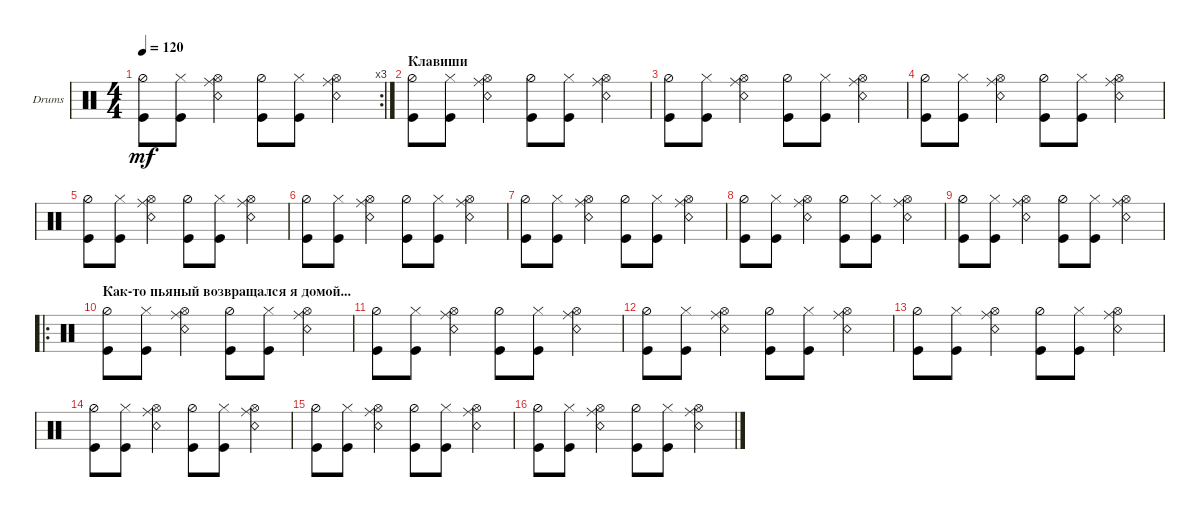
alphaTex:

\defaultSystemsLayout 4
\bracketExtendMode groupsimilarinstruments
\firstSystemTrackNameOrientation horizontal
\otherSystemsTrackNameOrientation horizontal
\track ("Drumkit" "Drums") {instrument percussion}
\staff {score}
\articulation defaults
\rc 3
\ts (4 4)
\tempo 120
\clef neutral
\ks c
("Kick (hit)" "Hi-Hat (half)").8{dy mf} ("Hi-Hat (closed)" "Kick (hit)").8 ("Hi-Hat (open)" "Ride (middle)" "Snare (rim shot)").4 ("Kick (hit)" "Hi-Hat (half)").8 ("Hi-Hat (closed)" "Kick (hit)").8 ("Hi-Hat (open)" "Ride (middle)" "Snare (rim shot)").4 |
\section ("" "Клавиши")
("Kick (hit)" "Hi-Hat (half)").8 ("Hi-Hat (closed)" "Kick (hit)").8 ("Hi-Hat (open)" "Ride (middle)" "Snare (rim shot)").4 ("Kick (hit)" "Hi-Hat (half)").8 ("Hi-Hat (closed)" "Kick (hit)").8 ("Hi-Hat (open)" "Ride (middle)" "Snare (rim shot)").4 |
("Kick (hit)" "Hi-Hat (half)").8 ("Hi-Hat (closed)" "Kick (hit)").8 ("Hi-Hat (open)" "Ride (middle)" "Snare (rim shot)").4 ("Kick (hit)" "Hi-Hat (half)").8 ("Hi-Hat (closed)" "Kick (hit)").8 ("Hi-Hat (open)" "Ride (middle)" "Snare (rim shot)").4 |
("Kick (hit)" "Hi-Hat (half)").8 ("Hi-Hat (closed)" "Kick (hit)").8 ("Hi-Hat (open)" "Ride (middle)" "Snare (rim shot)").4 ("Kick (hit)" "Hi-Hat (half)").8 ("Hi-Hat (closed)" "Kick (hit)").8 ("Hi-Hat (open)" "Ride (middle)" "Snare (rim shot)").4 |
("Kick (hit)" "Hi-Hat (half)").8 ("Hi-Hat (closed)" "Kick (hit)").8 ("Hi-Hat (open)" "Ride (middle)" "Snare (rim shot)").4 ("Kick (hit)" "Hi-Hat (half)").8 ("Hi-Hat (closed)" "Kick (hit)").8 ("Hi-Hat (open)" "Ride (middle)" "Snare (rim shot)").4 |
("Kick (hit)" "Hi-Hat (half)").8 ("Hi-Hat (closed)" "Kick (hit)").8 ("Hi-Hat (open)" "Ride (middle)" "Snare (rim shot)").4 ("Kick (hit)" "Hi-Hat (half)").8 ("Hi-Hat (closed)" "Kick (hit)").8 ("Hi-Hat (open)" "Ride (middle)" "Snare (rim shot)").4 |
("Kick (hit)" "Hi-Hat (half)").8 ("Hi-Hat (closed)" "Kick (hit)").8 ("Hi-Hat (open)" "Ride (middle)" "Snare (rim shot)").4 ("Kick (hit)" "Hi-Hat (half)").8 ("Hi-Hat (closed)" "Kick (hit)").8 ("Hi-Hat (open)" "Ride (middle)" "Snare (rim shot)").4 |
("Kick (hit)" "Hi-Hat (half)").8 ("Hi-Hat (closed)" "Kick (hit)").8 ("Hi-Hat (open)" "Ride (middle)" "Snare (rim shot)").4 ("Kick (hit)" "Hi-Hat (half)").8 ("Hi-Hat (closed)" "Kick (hit)").8 ("Hi-Hat (open)" "Ride (middle)" "Snare (rim shot)").4 |
("Kick (hit)" "Hi-Hat (half)").8 ("Hi-Hat (closed)" "Kick (hit)").8 ("Hi-Hat (open)" "Ride (middle)" "Snare (rim shot)").4 ("Kick (hit)" "Hi-Hat (half)").8 ("Hi-Hat (closed)" "Kick (hit)").8 ("Hi-Hat (open)" "Ride (middle)" "Snare (rim shot)").4 |
\ro
\section ("" "Как-то пьяный возвращался я домой...")
("Kick (hit)" "Hi-Hat (half)").8 ("Hi-Hat (closed)" "Kick (hit)").8 ("Hi-Hat (open)" "Ride (middle)" "Snare (rim shot)").4 ("Kick (hit)" "Hi-Hat (half)").8 ("Hi-Hat (closed)" "Kick (hit)").8 ("Hi-Hat (open)" "Ride (middle)" "Snare (rim shot)").4 |
("Kick (hit)" "Hi-Hat (half)").8 ("Hi-Hat (closed)" "Kick (hit)").8 ("Hi-Hat (open)" "Ride (middle)" "Snare (rim shot)").4 ("Kick (hit)" "Hi-Hat (half)").8 ("Hi-Hat (closed)" "Kick (hit)").8 ("Hi-Hat (open)" "Ride (middle)" "Snare (rim shot)").4 |
("Kick (hit)" "Hi-Hat (half)").8 ("Hi-Hat (closed)" "Kick (hit)").8 ("Hi-Hat (open)" "Ride (middle)" "Snare (rim shot)").4 ("Kick (hit)" "Hi-Hat (half)").8 ("Hi-Hat (closed)" "Kick (hit)").8 ("Hi-Hat (open)" "Ride (middle)" "Snare (rim shot)").4 |
("Kick (hit)" "Hi-Hat (half)").8 ("Hi-Hat (closed)" "Kick (hit)").8 ("Hi-Hat (open)" "Ride (middle)" "Snare (rim shot)").4 ("Kick (hit)" "Hi-Hat (half)").8 ("Hi-Hat (closed)" "Kick (hit)").8 ("Hi-Hat (open)" "Ride (middle)" "Snare (rim shot)").4 |
("Kick (hit)" "Hi-Hat (half)").8 ("Hi-Hat (closed)" "Kick (hit)").8 ("Hi-Hat (open)" "Ride (middle)" "Snare (rim shot)").4 ("Kick (hit)" "Hi-Hat (half)").8 ("Hi-Hat (closed)" "Kick (hit)").8 ("Hi-Hat (open)" "Ride (middle)" "Snare (rim shot)").4 |
("Kick (hit)" "Hi-Hat (half)").8 ("Hi-Hat (closed)" "Kick (hit)").8 ("Hi-Hat (open)" "Ride (middle)" "Snare (rim shot)").4 ("Kick (hit)" "Hi-Hat (half)").8 ("Hi-Hat (closed)" "Kick (hit)").8 ("Hi-Hat (open)" "Ride (middle)" "Snare (rim shot)").4 |
("Kick (hit)" "Hi-Hat (half)").8 ("Hi-Hat (closed)" "Kick (hit)").8 ("Hi-Hat (open)" "Ride (middle)" "Snare (rim shot)").4 ("Kick (hit)" "Hi-Hat (half)").8 ("Hi-Hat (closed)" "Kick (hit)").8 ("Hi-Hat (open)" "Ride (middle)" "Snare (rim shot)").4
